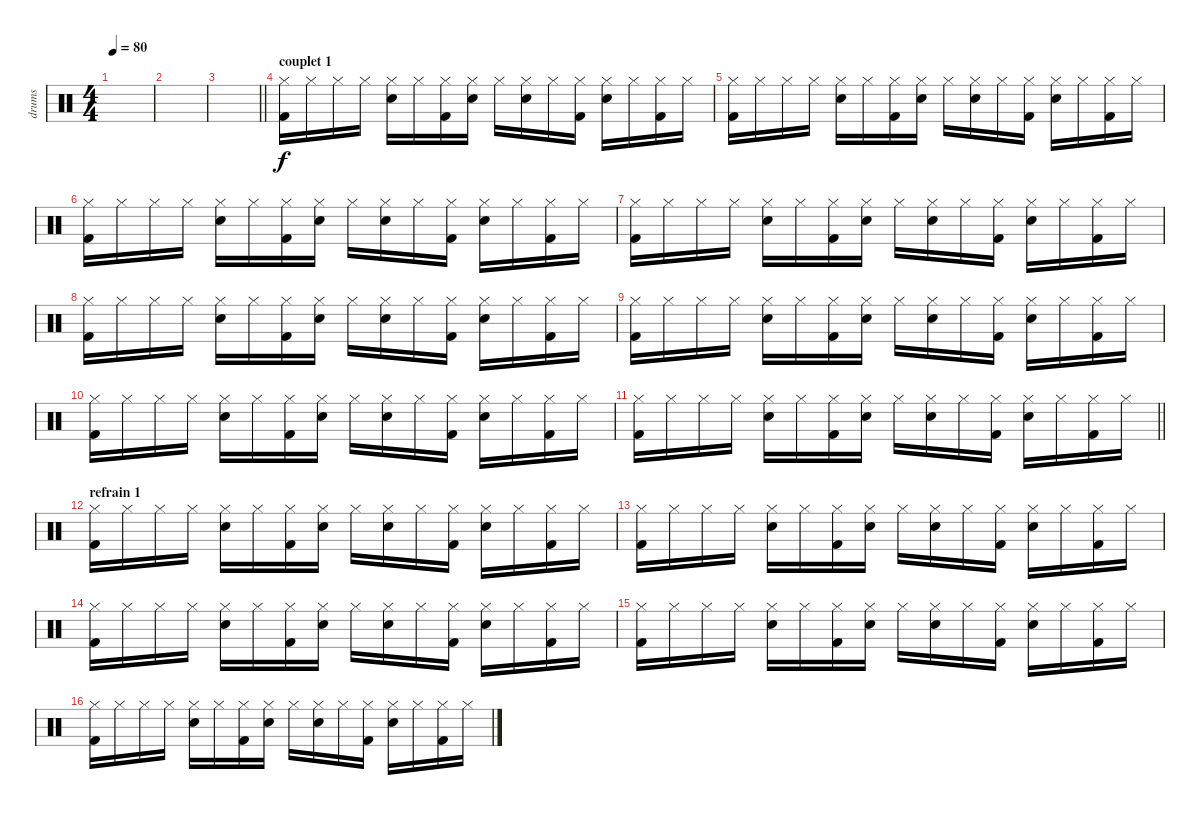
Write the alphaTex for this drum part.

\track ("drums" "drums") {instrument percussion}
\staff {score}
\articulation defaults
\ts (4 4)
\tempo 80
\clef neutral
\ks c
|
|
\barLineRight lightlight
|
\section ("" "couplet 1")
("Hi-Hat (closed)" "Kick (hit) 2").16 "Hi-Hat (closed)".16 "Hi-Hat (closed)".16 "Hi-Hat (closed)".16 ("Hi-Hat (closed)" "Snare (hit) 2").16 "Hi-Hat (closed)".16 ("Hi-Hat (closed)" "Kick (hit) 2").16 ("Hi-Hat (closed)" "Snare (hit) 2").16 "Hi-Hat (closed)".16 ("Hi-Hat (closed)" "Snare (hit) 2").16 "Hi-Hat (closed)".16 ("Hi-Hat (closed)" "Kick (hit) 2").16 ("Hi-Hat (closed)" "Snare (hit) 2").16 "Hi-Hat (closed)".16 ("Hi-Hat (closed)" "Kick (hit) 2").16 "Hi-Hat (closed)".16 |
("Hi-Hat (closed)" "Kick (hit) 2").16 "Hi-Hat (closed)".16 "Hi-Hat (closed)".16 "Hi-Hat (closed)".16 ("Hi-Hat (closed)" "Snare (hit) 2").16 "Hi-Hat (closed)".16 ("Hi-Hat (closed)" "Kick (hit) 2").16 ("Hi-Hat (closed)" "Snare (hit) 2").16 "Hi-Hat (closed)".16 ("Hi-Hat (closed)" "Snare (hit) 2").16 "Hi-Hat (closed)".16 ("Hi-Hat (closed)" "Kick (hit) 2").16 ("Hi-Hat (closed)" "Snare (hit) 2").16 "Hi-Hat (closed)".16 ("Hi-Hat (closed)" "Kick (hit) 2").16 "Hi-Hat (closed)".16 |
("Hi-Hat (closed)" "Kick (hit) 2").16 "Hi-Hat (closed)".16 "Hi-Hat (closed)".16 "Hi-Hat (closed)".16 ("Hi-Hat (closed)" "Snare (hit) 2").16 "Hi-Hat (closed)".16 ("Hi-Hat (closed)" "Kick (hit) 2").16 ("Hi-Hat (closed)" "Snare (hit) 2").16 "Hi-Hat (closed)".16 ("Hi-Hat (closed)" "Snare (hit) 2").16 "Hi-Hat (closed)".16 ("Hi-Hat (closed)" "Kick (hit) 2").16 ("Hi-Hat (closed)" "Snare (hit) 2").16 "Hi-Hat (closed)".16 ("Hi-Hat (closed)" "Kick (hit) 2").16 "Hi-Hat (closed)".16 |
("Hi-Hat (closed)" "Kick (hit) 2").16 "Hi-Hat (closed)".16 "Hi-Hat (closed)".16 "Hi-Hat (closed)".16 ("Hi-Hat (closed)" "Snare (hit) 2").16 "Hi-Hat (closed)".16 ("Hi-Hat (closed)" "Kick (hit) 2").16 ("Hi-Hat (closed)" "Snare (hit) 2").16 "Hi-Hat (closed)".16 ("Hi-Hat (closed)" "Snare (hit) 2").16 "Hi-Hat (closed)".16 ("Hi-Hat (closed)" "Kick (hit) 2").16 ("Hi-Hat (closed)" "Snare (hit) 2").16 "Hi-Hat (closed)".16 ("Hi-Hat (closed)" "Kick (hit) 2").16 "Hi-Hat (closed)".16 |
("Hi-Hat (closed)" "Kick (hit) 2").16 "Hi-Hat (closed)".16 "Hi-Hat (closed)".16 "Hi-Hat (closed)".16 ("Hi-Hat (closed)" "Snare (hit) 2").16 "Hi-Hat (closed)".16 ("Hi-Hat (closed)" "Kick (hit) 2").16 ("Hi-Hat (closed)" "Snare (hit) 2").16 "Hi-Hat (closed)".16 ("Hi-Hat (closed)" "Snare (hit) 2").16 "Hi-Hat (closed)".16 ("Hi-Hat (closed)" "Kick (hit) 2").16 ("Hi-Hat (closed)" "Snare (hit) 2").16 "Hi-Hat (closed)".16 ("Hi-Hat (closed)" "Kick (hit) 2").16 "Hi-Hat (closed)".16 |
("Hi-Hat (closed)" "Kick (hit) 2").16 "Hi-Hat (closed)".16 "Hi-Hat (closed)".16 "Hi-Hat (closed)".16 ("Hi-Hat (closed)" "Snare (hit) 2").16 "Hi-Hat (closed)".16 ("Hi-Hat (closed)" "Kick (hit) 2").16 ("Hi-Hat (closed)" "Snare (hit) 2").16 "Hi-Hat (closed)".16 ("Hi-Hat (closed)" "Snare (hit) 2").16 "Hi-Hat (closed)".16 ("Hi-Hat (closed)" "Kick (hit) 2").16 ("Hi-Hat (closed)" "Snare (hit) 2").16 "Hi-Hat (closed)".16 ("Hi-Hat (closed)" "Kick (hit) 2").16 "Hi-Hat (closed)".16 |
("Hi-Hat (closed)" "Kick (hit) 2").16 "Hi-Hat (closed)".16 "Hi-Hat (closed)".16 "Hi-Hat (closed)".16 ("Hi-Hat (closed)" "Snare (hit) 2").16 "Hi-Hat (closed)".16 ("Hi-Hat (closed)" "Kick (hit) 2").16 ("Hi-Hat (closed)" "Snare (hit) 2").16 "Hi-Hat (closed)".16 ("Hi-Hat (closed)" "Snare (hit) 2").16 "Hi-Hat (closed)".16 ("Hi-Hat (closed)" "Kick (hit) 2").16 ("Hi-Hat (closed)" "Snare (hit) 2").16 "Hi-Hat (closed)".16 ("Hi-Hat (closed)" "Kick (hit) 2").16 "Hi-Hat (closed)".16 |
\barLineRight lightlight
("Hi-Hat (closed)" "Kick (hit) 2").16 "Hi-Hat (closed)".16 "Hi-Hat (closed)".16 "Hi-Hat (closed)".16 ("Hi-Hat (closed)" "Snare (hit) 2").16 "Hi-Hat (closed)".16 ("Hi-Hat (closed)" "Kick (hit) 2").16 ("Hi-Hat (closed)" "Snare (hit) 2").16 "Hi-Hat (closed)".16 ("Hi-Hat (closed)" "Snare (hit) 2").16 "Hi-Hat (closed)".16 ("Hi-Hat (closed)" "Kick (hit) 2").16 ("Hi-Hat (closed)" "Snare (hit) 2").16 "Hi-Hat (closed)".16 ("Hi-Hat (closed)" "Kick (hit) 2").16 "Hi-Hat (closed)".16 |
\section ("" "refrain 1")
("Hi-Hat (closed)" "Kick (hit) 2").16 "Hi-Hat (closed)".16 "Hi-Hat (closed)".16 "Hi-Hat (closed)".16 ("Hi-Hat (closed)" "Snare (hit) 2").16 "Hi-Hat (closed)".16 ("Hi-Hat (closed)" "Kick (hit) 2").16 ("Hi-Hat (closed)" "Snare (hit) 2").16 "Hi-Hat (closed)".16 ("Hi-Hat (closed)" "Snare (hit) 2").16 "Hi-Hat (closed)".16 ("Hi-Hat (closed)" "Kick (hit) 2").16 ("Hi-Hat (closed)" "Snare (hit) 2").16 "Hi-Hat (closed)".16 ("Hi-Hat (closed)" "Kick (hit) 2").16 "Hi-Hat (closed)".16 |
("Hi-Hat (closed)" "Kick (hit) 2").16 "Hi-Hat (closed)".16 "Hi-Hat (closed)".16 "Hi-Hat (closed)".16 ("Hi-Hat (closed)" "Snare (hit) 2").16 "Hi-Hat (closed)".16 ("Hi-Hat (closed)" "Kick (hit) 2").16 ("Hi-Hat (closed)" "Snare (hit) 2").16 "Hi-Hat (closed)".16 ("Hi-Hat (closed)" "Snare (hit) 2").16 "Hi-Hat (closed)".16 ("Hi-Hat (closed)" "Kick (hit) 2").16 ("Hi-Hat (closed)" "Snare (hit) 2").16 "Hi-Hat (closed)".16 ("Hi-Hat (closed)" "Kick (hit) 2").16 "Hi-Hat (closed)".16 |
("Hi-Hat (closed)" "Kick (hit) 2").16 "Hi-Hat (closed)".16 "Hi-Hat (closed)".16 "Hi-Hat (closed)".16 ("Hi-Hat (closed)" "Snare (hit) 2").16 "Hi-Hat (closed)".16 ("Hi-Hat (closed)" "Kick (hit) 2").16 ("Hi-Hat (closed)" "Snare (hit) 2").16 "Hi-Hat (closed)".16 ("Hi-Hat (closed)" "Snare (hit) 2").16 "Hi-Hat (closed)".16 ("Hi-Hat (closed)" "Kick (hit) 2").16 ("Hi-Hat (closed)" "Snare (hit) 2").16 "Hi-Hat (closed)".16 ("Hi-Hat (closed)" "Kick (hit) 2").16 "Hi-Hat (closed)".16 |
("Hi-Hat (closed)" "Kick (hit) 2").16 "Hi-Hat (closed)".16 "Hi-Hat (closed)".16 "Hi-Hat (closed)".16 ("Hi-Hat (closed)" "Snare (hit) 2").16 "Hi-Hat (closed)".16 ("Hi-Hat (closed)" "Kick (hit) 2").16 ("Hi-Hat (closed)" "Snare (hit) 2").16 "Hi-Hat (closed)".16 ("Hi-Hat (closed)" "Snare (hit) 2").16 "Hi-Hat (closed)".16 ("Hi-Hat (closed)" "Kick (hit) 2").16 ("Hi-Hat (closed)" "Snare (hit) 2").16 "Hi-Hat (closed)".16 ("Hi-Hat (closed)" "Kick (hit) 2").16 "Hi-Hat (closed)".16 |
("Hi-Hat (closed)" "Kick (hit) 2").16 "Hi-Hat (closed)".16 "Hi-Hat (closed)".16 "Hi-Hat (closed)".16 ("Hi-Hat (closed)" "Snare (hit) 2").16 "Hi-Hat (closed)".16 ("Hi-Hat (closed)" "Kick (hit) 2").16 ("Hi-Hat (closed)" "Snare (hit) 2").16 "Hi-Hat (closed)".16 ("Hi-Hat (closed)" "Snare (hit) 2").16 "Hi-Hat (closed)".16 ("Hi-Hat (closed)" "Kick (hit) 2").16 ("Hi-Hat (closed)" "Snare (hit) 2").16 "Hi-Hat (closed)".16 ("Hi-Hat (closed)" "Kick (hit) 2").16 "Hi-Hat (closed)".16
